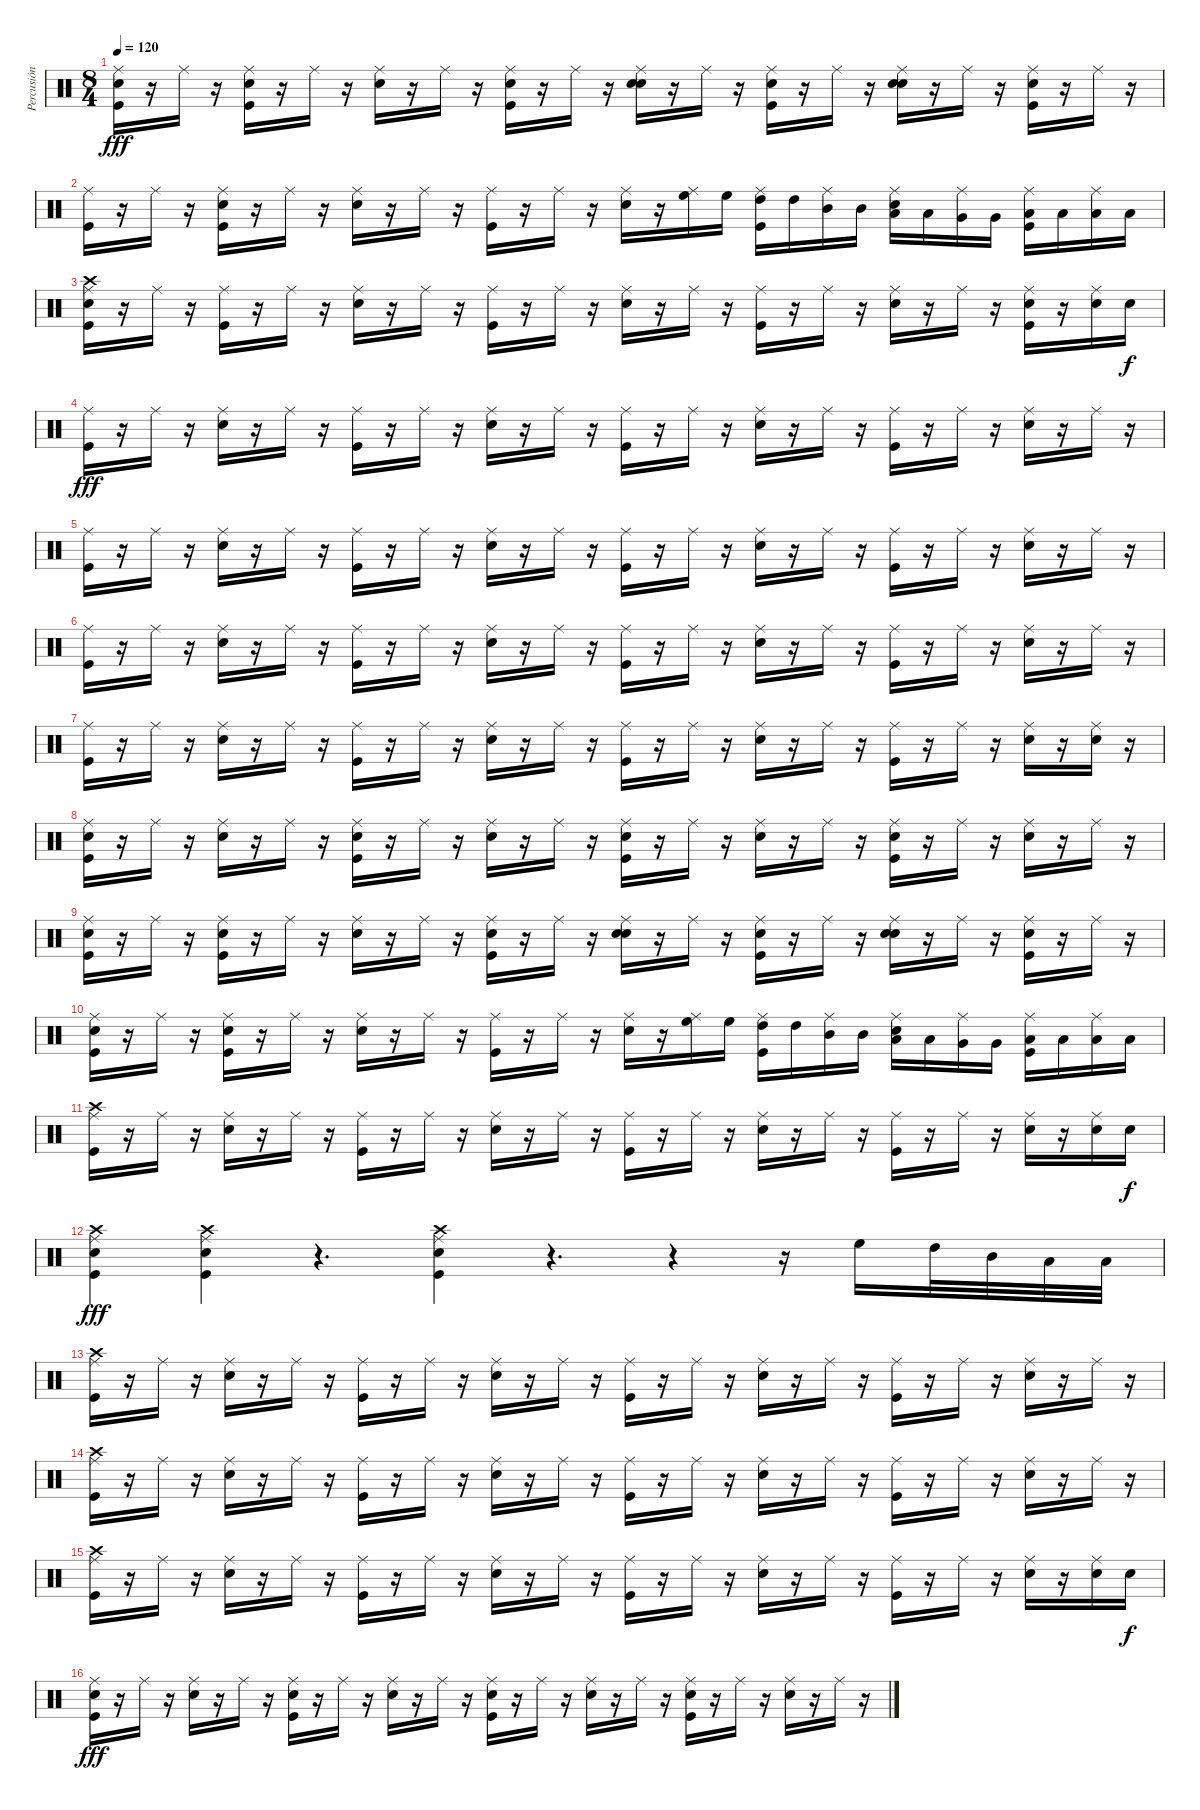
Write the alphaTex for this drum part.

\track ("Percusión" "Percusión") {instrument percussion}
\staff {score}
\articulation defaults
\ts (8 4)
\tempo 120
\clef neutral
\ks c
("Snare (hit) 2" "Ride (middle)" "Kick (hit)").16{dy fff} r.16 "Ride (middle)".16 r.16 ("Kick (hit)" "Ride (middle)" "Snare (hit) 2").16 r.16 "Ride (middle)".16 r.16 ("Snare (hit) 2" "Ride (middle)").16 r.16 "Ride (middle)".16 r.16 ("Kick (hit)" "Ride (middle)" "Snare (hit) 2").16 r.16 "Ride (middle)".16 r.16 ("Snare (hit) 2" "Ride (middle)" "Snare (hit) 2").16 r.16 "Ride (middle)".16 r.16 ("Kick (hit)" "Ride (middle)" "Snare (hit) 2").16 r.16 "Ride (middle)".16 r.16 ("Snare (hit) 2" "Ride (middle)" "Snare (hit) 2").16 r.16 "Ride (middle)".16 r.16 ("Kick (hit)" "Ride (middle)" "Snare (hit) 2").16 r.16 "Ride (middle)".16 r.16 |
("Ride (middle)" "Kick (hit)").16 r.16 "Ride (middle)".16 r.16 ("Kick (hit)" "Ride (middle)" "Snare (hit) 2").16 r.16 "Ride (middle)".16 r.16 ("Snare (hit) 2" "Ride (middle)").16 r.16 "Ride (middle)".16 r.16 ("Kick (hit)" "Ride (middle)").16 r.16 "Ride (middle)".16 r.16 ("Snare (hit) 2" "Ride (middle)").16 r.16 ("Ride (middle)" "High Floor Tom (hit)").16 "High Floor Tom (hit)".16 ("Kick (hit)" "Ride (middle)" "High Tom (hit)").16 "High Tom (hit)".16 ("Ride (middle)" "Mid Tom (hit)").16 "Mid Tom (hit)".16 ("Snare (hit) 2" "Ride (middle)" "Low Tom (hit)").16 "Low Tom (hit)".16 ("Ride (middle)" "Very Low Tom (hit)").16 "Very Low Tom (hit)".16 ("Kick (hit)" "Ride (middle)" "Low Floor Tom (hit)").16 "Low Floor Tom (hit)".16 ("Ride (middle)" "Low Floor Tom (hit)").16 "Low Floor Tom (hit)".16 |
("Snare (hit) 2" "Ride (middle)" "Crash high (hit)" "Kick (hit)").16 r.16 "Ride (middle)".16 r.16 ("Kick (hit)" "Ride (middle)").16 r.16 "Ride (middle)".16 r.16 ("Snare (hit) 2" "Ride (middle)").16 r.16 "Ride (middle)".16 r.16 ("Kick (hit)" "Ride (middle)").16 r.16 "Ride (middle)".16 r.16 ("Snare (hit) 2" "Ride (middle)").16 r.16 "Ride (middle)".16 r.16 ("Kick (hit)" "Ride (middle)").16 r.16 "Ride (middle)".16 r.16 ("Snare (hit) 2" "Ride (middle)").16 r.16 "Ride (middle)".16 r.16 ("Kick (hit)" "Snare (hit) 2" "Ride (middle)").16 r.16 ("Snare (hit) 2" "Ride (middle)").16 "Snare (hit) 2".16{dy f} |
("Ride (middle)" "Kick (hit)").16{dy fff} r.16 "Ride (middle)".16 r.16 ("Snare (hit) 2" "Ride (middle)").16 r.16 "Ride (middle)".16 r.16 ("Kick (hit)" "Ride (middle)").16 r.16 "Ride (middle)".16 r.16 ("Snare (hit) 2" "Ride (middle)").16 r.16 "Ride (middle)".16 r.16 ("Kick (hit)" "Ride (middle)").16 r.16 "Ride (middle)".16 r.16 ("Snare (hit) 2" "Ride (middle)").16 r.16 "Ride (middle)".16 r.16 ("Kick (hit)" "Ride (middle)").16 r.16 "Ride (middle)".16 r.16 ("Snare (hit) 2" "Ride (middle)").16 r.16 "Ride (middle)".16 r.16 |
("Ride (middle)" "Kick (hit)").16 r.16 "Ride (middle)".16 r.16 ("Snare (hit) 2" "Ride (middle)").16 r.16 "Ride (middle)".16 r.16 ("Kick (hit)" "Ride (middle)").16 r.16 "Ride (middle)".16 r.16 ("Snare (hit) 2" "Ride (middle)").16 r.16 "Ride (middle)".16 r.16 ("Kick (hit)" "Ride (middle)").16 r.16 "Ride (middle)".16 r.16 ("Snare (hit) 2" "Ride (middle)").16 r.16 "Ride (middle)".16 r.16 ("Kick (hit)" "Ride (middle)").16 r.16 "Ride (middle)".16 r.16 ("Snare (hit) 2" "Ride (middle)").16 r.16 "Ride (middle)".16 r.16 |
("Ride (middle)" "Kick (hit)").16 r.16 "Ride (middle)".16 r.16 ("Snare (hit) 2" "Ride (middle)").16 r.16 "Ride (middle)".16 r.16 ("Kick (hit)" "Ride (middle)").16 r.16 "Ride (middle)".16 r.16 ("Snare (hit) 2" "Ride (middle)").16 r.16 "Ride (middle)".16 r.16 ("Kick (hit)" "Ride (middle)").16 r.16 "Ride (middle)".16 r.16 ("Snare (hit) 2" "Ride (middle)").16 r.16 "Ride (middle)".16 r.16 ("Kick (hit)" "Ride (middle)").16 r.16 "Ride (middle)".16 r.16 ("Snare (hit) 2" "Ride (middle)").16 r.16 "Ride (middle)".16 r.16 |
("Ride (middle)" "Kick (hit)").16 r.16 "Ride (middle)".16 r.16 ("Snare (hit) 2" "Ride (middle)").16 r.16 "Ride (middle)".16 r.16 ("Kick (hit)" "Ride (middle)").16 r.16 "Ride (middle)".16 r.16 ("Snare (hit) 2" "Ride (middle)").16 r.16 "Ride (middle)".16 r.16 ("Kick (hit)" "Ride (middle)").16 r.16 "Ride (middle)".16 r.16 ("Snare (hit) 2" "Ride (middle)").16 r.16 "Ride (middle)".16 r.16 ("Kick (hit)" "Ride (middle)").16 r.16 "Ride (middle)".16 r.16 ("Snare (hit) 2" "Ride (middle)").16 r.16 ("Snare (hit) 2" "Ride (middle)").16 r.16 |
("Snare (hit) 2" "Ride (middle)" "Kick (hit)").16 r.16 "Ride (middle)".16 r.16 ("Snare (hit) 2" "Ride (middle)").16 r.16 "Ride (middle)".16 r.16 ("Kick (hit)" "Ride (middle)" "Snare (hit) 2").16 r.16 "Ride (middle)".16 r.16 ("Snare (hit) 2" "Ride (middle)").16 r.16 "Ride (middle)".16 r.16 ("Kick (hit)" "Ride (middle)" "Snare (hit) 2").16 r.16 "Ride (middle)".16 r.16 ("Snare (hit) 2" "Ride (middle)").16 r.16 "Ride (middle)".16 r.16 ("Kick (hit)" "Ride (middle)" "Snare (hit) 2").16 r.16 "Ride (middle)".16 r.16 ("Snare (hit) 2" "Ride (middle)").16 r.16 "Ride (middle)".16 r.16 |
("Snare (hit) 2" "Ride (middle)" "Kick (hit)").16 r.16 "Ride (middle)".16 r.16 ("Kick (hit)" "Ride (middle)" "Snare (hit) 2").16 r.16 "Ride (middle)".16 r.16 ("Snare (hit) 2" "Ride (middle)").16 r.16 "Ride (middle)".16 r.16 ("Kick (hit)" "Ride (middle)" "Snare (hit) 2").16 r.16 "Ride (middle)".16 r.16 ("Snare (hit) 2" "Ride (middle)" "Snare (hit) 2").16 r.16 "Ride (middle)".16 r.16 ("Kick (hit)" "Ride (middle)" "Snare (hit) 2").16 r.16 "Ride (middle)".16 r.16 ("Snare (hit) 2" "Ride (middle)" "Snare (hit) 2").16 r.16 "Ride (middle)".16 r.16 ("Kick (hit)" "Ride (middle)" "Snare (hit) 2").16 r.16 "Ride (middle)".16 r.16 |
("Snare (hit) 2" "Ride (middle)" "Kick (hit)").16 r.16 "Ride (middle)".16 r.16 ("Kick (hit)" "Ride (middle)" "Snare (hit) 2").16 r.16 "Ride (middle)".16 r.16 ("Snare (hit) 2" "Ride (middle)").16 r.16 "Ride (middle)".16 r.16 ("Kick (hit)" "Ride (middle)").16 r.16 "Ride (middle)".16 r.16 ("Snare (hit) 2" "Ride (middle)").16 r.16 ("Ride (middle)" "High Floor Tom (hit)").16 "High Floor Tom (hit)".16 ("Kick (hit)" "Ride (middle)" "High Tom (hit)").16 "High Tom (hit)".16 ("Ride (middle)" "Mid Tom (hit)").16 "Mid Tom (hit)".16 ("Snare (hit) 2" "Ride (middle)" "Low Tom (hit)").16 "Low Tom (hit)".16 ("Ride (middle)" "Very Low Tom (hit)").16 "Very Low Tom (hit)".16 ("Kick (hit)" "Ride (middle)" "Low Floor Tom (hit)").16 "Low Floor Tom (hit)".16 ("Ride (middle)" "Low Floor Tom (hit)").16 "Low Floor Tom (hit)".16 |
("Ride (middle)" "Crash high (hit)" "Kick (hit)").16 r.16 "Ride (middle)".16 r.16 ("Snare (hit) 2" "Ride (middle)").16 r.16 "Ride (middle)".16 r.16 ("Kick (hit)" "Ride (middle)").16 r.16 "Ride (middle)".16 r.16 ("Snare (hit) 2" "Ride (middle)").16 r.16 "Ride (middle)".16 r.16 ("Kick (hit)" "Ride (middle)").16 r.16 "Ride (middle)".16 r.16 ("Snare (hit) 2" "Ride (middle)").16 r.16 "Ride (middle)".16 r.16 ("Kick (hit)" "Ride (middle)").16 r.16 "Ride (middle)".16 r.16 ("Snare (hit) 2" "Ride (middle)").16 r.16 ("Snare (hit) 2" "Ride (middle)").16 "Snare (hit) 2".16{dy f} |
("Snare (hit) 2" "Ride (middle)" "Crash high (hit)" "Kick (hit)").4{dy fff} ("Snare (hit) 2" "Ride (middle)" "Crash high (hit)" "Kick (hit)").4 r.4{d} ("Snare (hit) 2" "Ride (middle)" "Crash high (hit)" "Kick (hit)").4 r.4{d} r.4 r.16 "High Floor Tom (hit)".16 "High Tom (hit)".32 "Mid Tom (hit)".32 "Low Tom (hit)".32 "Low Floor Tom (hit)".32 |
("Crash high (hit)" "Ride (middle)" "Kick (hit)").16 r.16 "Ride (middle)".16 r.16 ("Snare (hit) 2" "Ride (middle)").16 r.16 "Ride (middle)".16 r.16 ("Kick (hit)" "Ride (middle)").16 r.16 "Ride (middle)".16 r.16 ("Snare (hit) 2" "Ride (middle)").16 r.16 "Ride (middle)".16 r.16 ("Kick (hit)" "Ride (middle)").16 r.16 "Ride (middle)".16 r.16 ("Snare (hit) 2" "Ride (middle)").16 r.16 "Ride (middle)".16 r.16 ("Kick (hit)" "Ride (middle)").16 r.16 "Ride (middle)".16 r.16 ("Snare (hit) 2" "Ride (middle)").16 r.16 "Ride (middle)".16 r.16 |
("Crash high (hit)" "Ride (middle)" "Kick (hit)").16 r.16 "Ride (middle)".16 r.16 ("Snare (hit) 2" "Ride (middle)").16 r.16 "Ride (middle)".16 r.16 ("Kick (hit)" "Ride (middle)").16 r.16 "Ride (middle)".16 r.16 ("Snare (hit) 2" "Ride (middle)").16 r.16 "Ride (middle)".16 r.16 ("Kick (hit)" "Ride (middle)").16 r.16 "Ride (middle)".16 r.16 ("Snare (hit) 2" "Ride (middle)").16 r.16 "Ride (middle)".16 r.16 ("Kick (hit)" "Ride (middle)").16 r.16 "Ride (middle)".16 r.16 ("Snare (hit) 2" "Ride (middle)").16 r.16 "Ride (middle)".16 r.16 |
("Ride (middle)" "Crash high (hit)" "Kick (hit)").16 r.16 "Ride (middle)".16 r.16 ("Snare (hit) 2" "Ride (middle)").16 r.16 "Ride (middle)".16 r.16 ("Kick (hit)" "Ride (middle)").16 r.16 "Ride (middle)".16 r.16 ("Snare (hit) 2" "Ride (middle)").16 r.16 "Ride (middle)".16 r.16 ("Kick (hit)" "Ride (middle)").16 r.16 "Ride (middle)".16 r.16 ("Snare (hit) 2" "Ride (middle)").16 r.16 "Ride (middle)".16 r.16 ("Kick (hit)" "Ride (middle)").16 r.16 "Ride (middle)".16 r.16 ("Snare (hit) 2" "Ride (middle)").16 r.16 ("Snare (hit) 2" "Ride (middle)").16 "Snare (hit) 2".16{dy f} |
("Snare (hit) 2" "Ride (middle)" "Kick (hit)").16{dy fff} r.16 "Ride (middle)".16 r.16 ("Snare (hit) 2" "Ride (middle)").16 r.16 "Ride (middle)".16 r.16 ("Kick (hit)" "Snare (hit) 2" "Ride (middle)").16 r.16 "Ride (middle)".16 r.16 ("Snare (hit) 2" "Ride (middle)").16 r.16 "Ride (middle)".16 r.16 ("Kick (hit)" "Snare (hit) 2" "Ride (middle)").16 r.16 "Ride (middle)".16 r.16 ("Snare (hit) 2" "Ride (middle)").16 r.16 "Ride (middle)".16 r.16 ("Kick (hit)" "Snare (hit) 2" "Ride (middle)").16 r.16 "Ride (middle)".16 r.16 ("Snare (hit) 2" "Ride (middle)").16 r.16 "Ride (middle)".16 r.16
